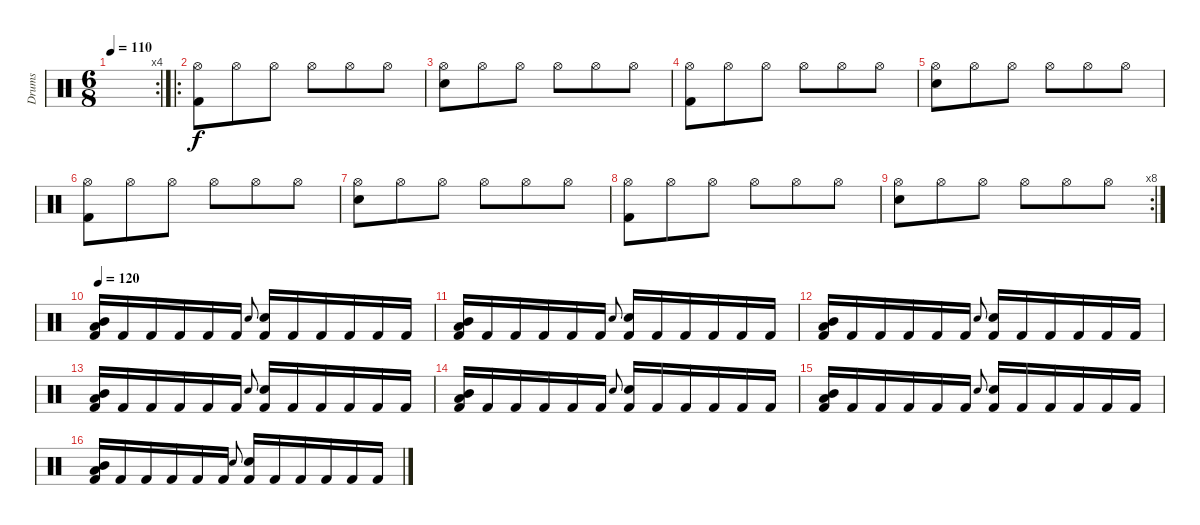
\track ("Drums" "Drums") {instrument percussion}
\staff {score}
\articulation defaults
\rc 4
\ts (6 8)
\tempo 110
\clef neutral
\ks c
|
\ro
("Hi-Hat (open)" "Kick (hit) 2").8{volume 13} "Hi-Hat (open)".8 "Hi-Hat (open)".8 "Hi-Hat (open)".8 "Hi-Hat (open)".8 "Hi-Hat (open)".8 |
("Hi-Hat (open)" "Electric Snare (hit)").8 "Hi-Hat (open)".8 "Hi-Hat (open)".8 "Hi-Hat (open)".8 "Hi-Hat (open)".8 "Hi-Hat (open)".8 |
("Hi-Hat (open)" "Kick (hit) 2").8 "Hi-Hat (open)".8 "Hi-Hat (open)".8 "Hi-Hat (open)".8 "Hi-Hat (open)".8 "Hi-Hat (open)".8 |
("Hi-Hat (open)" "Electric Snare (hit)").8 "Hi-Hat (open)".8 "Hi-Hat (open)".8 "Hi-Hat (open)".8 "Hi-Hat (open)".8 "Hi-Hat (open)".8 |
("Hi-Hat (open)" "Kick (hit) 2").8 "Hi-Hat (open)".8 "Hi-Hat (open)".8 "Hi-Hat (open)".8 "Hi-Hat (open)".8 "Hi-Hat (open)".8 |
("Hi-Hat (open)" "Electric Snare (hit)").8 "Hi-Hat (open)".8 "Hi-Hat (open)".8 "Hi-Hat (open)".8 "Hi-Hat (open)".8 "Hi-Hat (open)".8 |
("Hi-Hat (open)" "Kick (hit) 2").8 "Hi-Hat (open)".8 "Hi-Hat (open)".8 "Hi-Hat (open)".8 "Hi-Hat (open)".8 "Hi-Hat (open)".8 |
\rc 8
("Hi-Hat (open)" "Electric Snare (hit)").8 "Hi-Hat (open)".8 "Hi-Hat (open)".8 "Hi-Hat (open)".8 "Hi-Hat (open)".8 "Hi-Hat (open)".8 |
\tempo 120
("Mid Tom (hit)" "Low Tom (hit)" "Kick (hit) 2").16 "Kick (hit) 2".16 "Kick (hit) 2".16 "Kick (hit) 2".16 "Kick (hit) 2".16 "Kick (hit) 2".16 "Electric Snare (hit)".8{gr onbeat} ("Electric Snare (hit)" "Kick (hit) 2").16 "Kick (hit) 2".16 "Kick (hit) 2".16 "Kick (hit) 2".16 "Kick (hit) 2".16 "Kick (hit) 2".16 |
("Mid Tom (hit)" "Low Tom (hit)" "Kick (hit) 2").16 "Kick (hit) 2".16 "Kick (hit) 2".16 "Kick (hit) 2".16 "Kick (hit) 2".16 "Kick (hit) 2".16 "Electric Snare (hit)".8{gr onbeat} ("Electric Snare (hit)" "Kick (hit) 2").16 "Kick (hit) 2".16 "Kick (hit) 2".16 "Kick (hit) 2".16 "Kick (hit) 2".16 "Kick (hit) 2".16 |
("Mid Tom (hit)" "Low Tom (hit)" "Kick (hit) 2").16 "Kick (hit) 2".16 "Kick (hit) 2".16 "Kick (hit) 2".16 "Kick (hit) 2".16 "Kick (hit) 2".16 "Electric Snare (hit)".8{gr onbeat} ("Electric Snare (hit)" "Kick (hit) 2").16 "Kick (hit) 2".16 "Kick (hit) 2".16 "Kick (hit) 2".16 "Kick (hit) 2".16 "Kick (hit) 2".16 |
("Mid Tom (hit)" "Low Tom (hit)" "Kick (hit) 2").16 "Kick (hit) 2".16 "Kick (hit) 2".16 "Kick (hit) 2".16 "Kick (hit) 2".16 "Kick (hit) 2".16 "Electric Snare (hit)".8{gr onbeat} ("Electric Snare (hit)" "Kick (hit) 2").16 "Kick (hit) 2".16 "Kick (hit) 2".16 "Kick (hit) 2".16 "Kick (hit) 2".16 "Kick (hit) 2".16 |
("Mid Tom (hit)" "Low Tom (hit)" "Kick (hit) 2").16 "Kick (hit) 2".16 "Kick (hit) 2".16 "Kick (hit) 2".16 "Kick (hit) 2".16 "Kick (hit) 2".16 "Electric Snare (hit)".8{gr onbeat} ("Electric Snare (hit)" "Kick (hit) 2").16 "Kick (hit) 2".16 "Kick (hit) 2".16 "Kick (hit) 2".16 "Kick (hit) 2".16 "Kick (hit) 2".16 |
("Mid Tom (hit)" "Low Tom (hit)" "Kick (hit) 2").16 "Kick (hit) 2".16 "Kick (hit) 2".16 "Kick (hit) 2".16 "Kick (hit) 2".16 "Kick (hit) 2".16 "Electric Snare (hit)".8{gr onbeat} ("Electric Snare (hit)" "Kick (hit) 2").16 "Kick (hit) 2".16 "Kick (hit) 2".16 "Kick (hit) 2".16 "Kick (hit) 2".16 "Kick (hit) 2".16 |
("Mid Tom (hit)" "Low Tom (hit)" "Kick (hit) 2").16 "Kick (hit) 2".16 "Kick (hit) 2".16 "Kick (hit) 2".16 "Kick (hit) 2".16 "Kick (hit) 2".16 "Electric Snare (hit)".8{gr onbeat} ("Electric Snare (hit)" "Kick (hit) 2").16 "Kick (hit) 2".16 "Kick (hit) 2".16 "Kick (hit) 2".16 "Kick (hit) 2".16 "Kick (hit) 2".16
